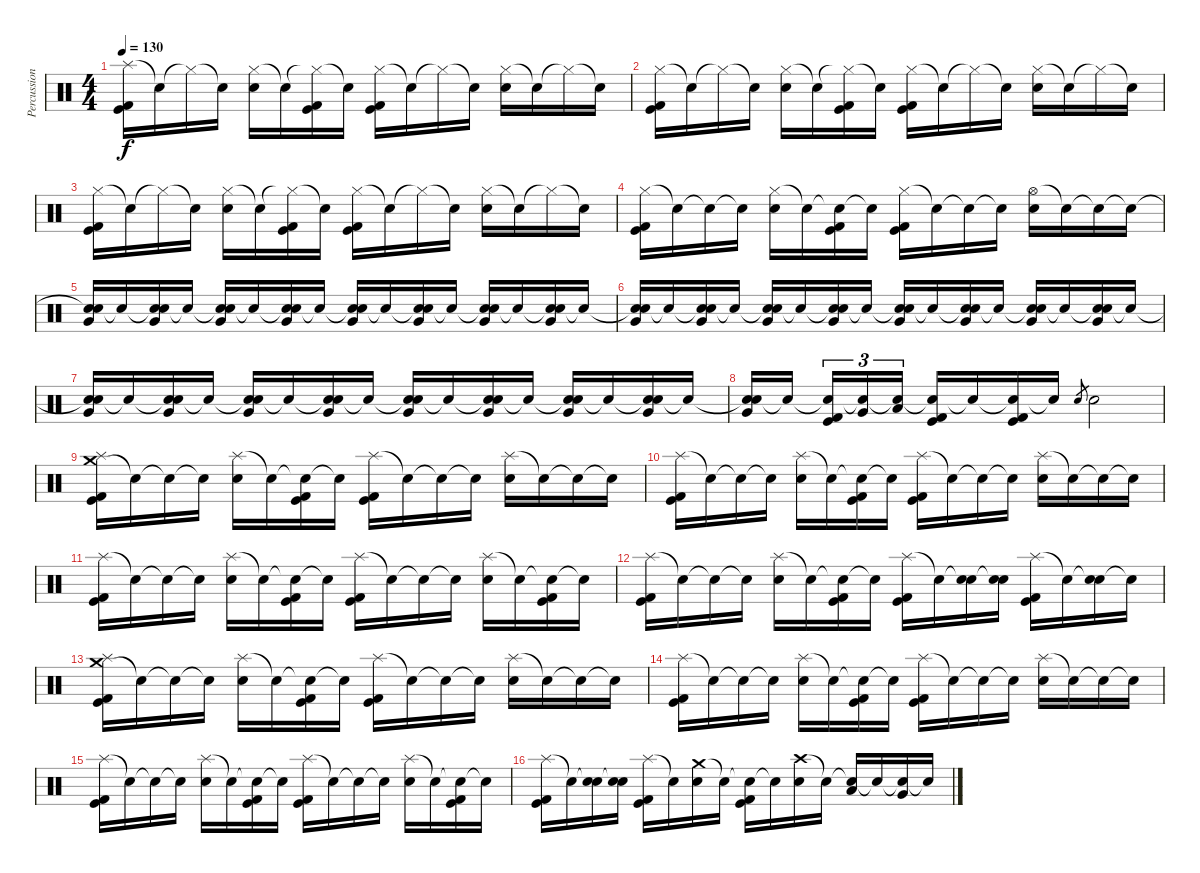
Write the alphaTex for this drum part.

\track ("Percussion" "Percussion") {instrument percussion}
\staff {score}
\articulation defaults
\ts (4 4)
\tempo 130
\clef neutral
\ks c
("Splash (hit)" "Kick (hit)" "Kick (hit) 2").16{dy f} "Snare (hit)"{t}.16 "Hi-Hat (closed)"{t}.16 "Snare (hit)"{t}.16 ("Hi-Hat (closed)" "Electric Snare (hit)").16 "Snare (hit)"{t}.16 ("Hi-Hat (closed)"{t} "Kick (hit)" "Kick (hit) 2").16 "Snare (hit)"{t}.16 ("Hi-Hat (closed)" "Kick (hit)" "Kick (hit) 2").16 "Snare (hit)"{t}.16 "Hi-Hat (closed)"{t}.16 "Snare (hit)"{t}.16 ("Hi-Hat (closed)" "Electric Snare (hit)").16 "Snare (hit)"{t}.16 "Hi-Hat (closed)"{t}.16 "Snare (hit)"{t}.16 |
("Hi-Hat (closed)" "Kick (hit)" "Kick (hit) 2").16 "Snare (hit)"{t}.16 "Hi-Hat (closed)"{t}.16 "Snare (hit)"{t}.16 ("Hi-Hat (closed)" "Electric Snare (hit)").16 "Snare (hit)"{t}.16 ("Hi-Hat (closed)"{t} "Kick (hit)" "Kick (hit) 2").16 "Snare (hit)"{t}.16 ("Hi-Hat (closed)" "Kick (hit)" "Kick (hit) 2").16 "Snare (hit)"{t}.16 "Hi-Hat (closed)"{t}.16 "Snare (hit)"{t}.16 ("Hi-Hat (closed)" "Electric Snare (hit)").16 "Snare (hit)"{t}.16 "Hi-Hat (closed)"{t}.16 "Snare (hit)"{t}.16 |
("Hi-Hat (closed)" "Kick (hit)" "Kick (hit) 2").16 "Snare (hit)"{t}.16 "Hi-Hat (closed)"{t}.16 "Snare (hit)"{t}.16 ("Hi-Hat (closed)" "Electric Snare (hit)").16 "Snare (hit)"{t}.16 ("Hi-Hat (closed)"{t} "Kick (hit)" "Kick (hit) 2").16 "Snare (hit)"{t}.16 ("Hi-Hat (closed)" "Kick (hit)" "Kick (hit) 2").16 "Snare (hit)"{t}.16 "Hi-Hat (closed)"{t}.16 "Snare (hit)"{t}.16 ("Hi-Hat (closed)" "Electric Snare (hit)").16 "Snare (hit)"{t}.16 "Hi-Hat (closed)"{t}.16 "Snare (hit)"{t}.16 |
("Hi-Hat (closed)" "Kick (hit)" "Kick (hit) 2").16 "Snare (hit)"{t}.16 "Snare (hit)"{t}.16 "Snare (hit)"{t}.16 ("Hi-Hat (closed)" "Electric Snare (hit)").16 "Snare (hit)"{t}.16 ("Snare (hit)"{t} "Kick (hit)" "Kick (hit) 2").16 "Snare (hit)"{t}.16 ("Hi-Hat (closed)" "Kick (hit)" "Kick (hit) 2").16 "Snare (hit)"{t}.16 "Snare (hit)"{t}.16 "Snare (hit)"{t}.16 ("Hi-Hat (open)" "Electric Snare (hit)").16 "Snare (hit)"{t}.16 "Snare (hit)"{t}.16 "Snare (hit)"{t}.16 |
("Snare (hit)"{t} "Electric Snare (hit)" "Very Low Tom (hit)").16{volume 4} "Snare (hit)"{t}.16 ("Snare (hit)"{t} "Electric Snare (hit)" "Very Low Tom (hit)").16{volume 8} "Snare (hit)"{t}.16 ("Snare (hit)"{t} "Electric Snare (hit)" "Very Low Tom (hit)").16 "Snare (hit)"{t}.16 ("Snare (hit)"{t} "Electric Snare (hit)" "Very Low Tom (hit)").16 "Snare (hit)"{t}.16 ("Snare (hit)"{t} "Electric Snare (hit)" "Very Low Tom (hit)").16 "Snare (hit)"{t}.16 ("Snare (hit)"{t} "Electric Snare (hit)" "Very Low Tom (hit)").16 "Snare (hit)"{t}.16 ("Snare (hit)"{t} "Electric Snare (hit)" "Very Low Tom (hit)").16 "Snare (hit)"{t}.16 ("Snare (hit)"{t} "Electric Snare (hit)" "Very Low Tom (hit)").16 "Snare (hit)"{t}.16 |
("Snare (hit)"{t} "Electric Snare (hit)" "Very Low Tom (hit)").16{volume 6} "Snare (hit)"{t}.16 ("Snare (hit)"{t} "Electric Snare (hit)" "Very Low Tom (hit)").16{volume 10} "Snare (hit)"{t}.16 ("Snare (hit)"{t} "Electric Snare (hit)" "Very Low Tom (hit)").16 "Snare (hit)"{t}.16 ("Snare (hit)"{t} "Electric Snare (hit)" "Very Low Tom (hit)").16 "Snare (hit)"{t}.16 ("Snare (hit)"{t} "Electric Snare (hit)" "Very Low Tom (hit)").16 "Snare (hit)"{t}.16 ("Snare (hit)"{t} "Electric Snare (hit)" "Very Low Tom (hit)").16 "Snare (hit)"{t}.16 ("Snare (hit)"{t} "Electric Snare (hit)" "Very Low Tom (hit)").16 "Snare (hit)"{t}.16 ("Snare (hit)"{t} "Electric Snare (hit)" "Very Low Tom (hit)").16 "Snare (hit)"{t}.16 |
("Snare (hit)"{t} "Electric Snare (hit)" "Very Low Tom (hit)").16{volume 8} "Snare (hit)"{t}.16 ("Snare (hit)"{t} "Electric Snare (hit)" "Very Low Tom (hit)").16{volume 12} "Snare (hit)"{t}.16 ("Snare (hit)"{t} "Electric Snare (hit)" "Very Low Tom (hit)").16 "Snare (hit)"{t}.16 ("Snare (hit)"{t} "Electric Snare (hit)" "Very Low Tom (hit)").16 "Snare (hit)"{t}.16 ("Snare (hit)"{t} "Electric Snare (hit)" "Very Low Tom (hit)").16 "Snare (hit)"{t}.16 ("Snare (hit)"{t} "Electric Snare (hit)" "Very Low Tom (hit)").16 "Snare (hit)"{t}.16 ("Snare (hit)"{t} "Electric Snare (hit)" "Very Low Tom (hit)").16 "Snare (hit)"{t}.16 ("Snare (hit)"{t} "Electric Snare (hit)" "Very Low Tom (hit)").16 "Snare (hit)"{t}.16 |
("Snare (hit)"{t} "Electric Snare (hit)" "Very Low Tom (hit)").16{volume 10} "Snare (hit)"{t}.16{beam splitsecondary} ("Snare (hit)"{t} "Kick (hit)" "Kick (hit) 2").16{tu (3 2) volume 16} ("Snare (hit)"{t} "Very Low Tom (hit)").16{tu (3 2)} ("Snare (hit)"{t} "Low Tom (hit)").16{tu (3 2)} ("Snare (hit)"{t} "Kick (hit)" "Kick (hit) 2").16 "Snare (hit)"{t}.16 ("Snare (hit)"{t} "Kick (hit)" "Kick (hit) 2").16 "Snare (hit)"{t}.16 "Electric Snare (hit)".8{gr} "Electric Snare (hit)".2 |
("Crash medium (hit)" "Splash (hit)" "Kick (hit)" "Kick (hit) 2").16 "Snare (hit)"{t}.16 "Snare (hit)"{t}.16 "Snare (hit)"{t}.16 ("Splash (hit)" "Electric Snare (hit)").16 "Snare (hit)"{t}.16 ("Snare (hit)"{t} "Kick (hit)" "Kick (hit) 2").16 "Snare (hit)"{t}.16 ("Splash (hit)" "Kick (hit)" "Kick (hit) 2").16 "Snare (hit)"{t}.16 "Snare (hit)"{t}.16 "Snare (hit)"{t}.16 ("Splash (hit)" "Electric Snare (hit)").16 "Snare (hit)"{t}.16 "Snare (hit)"{t}.16 "Snare (hit)"{t}.16 |
("Splash (hit)" "Kick (hit)" "Kick (hit) 2").16 "Snare (hit)"{t}.16 "Snare (hit)"{t}.16 "Snare (hit)"{t}.16 ("Splash (hit)" "Electric Snare (hit)").16 "Snare (hit)"{t}.16 ("Snare (hit)"{t} "Kick (hit)" "Kick (hit) 2").16 "Snare (hit)"{t}.16 ("Splash (hit)" "Kick (hit)" "Kick (hit) 2").16 "Snare (hit)"{t}.16 "Snare (hit)"{t}.16 "Snare (hit)"{t}.16 ("Splash (hit)" "Electric Snare (hit)").16 "Snare (hit)"{t}.16 "Snare (hit)"{t}.16 "Snare (hit)"{t}.16 |
("Splash (hit)" "Kick (hit)" "Kick (hit) 2").16 "Snare (hit)"{t}.16 "Snare (hit)"{t}.16 "Snare (hit)"{t}.16 ("Splash (hit)" "Electric Snare (hit)").16 "Snare (hit)"{t}.16 ("Snare (hit)"{t} "Kick (hit)" "Kick (hit) 2").16 "Snare (hit)"{t}.16 ("Splash (hit)" "Kick (hit)" "Kick (hit) 2").16 "Snare (hit)"{t}.16 "Snare (hit)"{t}.16 "Snare (hit)"{t}.16 ("Splash (hit)" "Electric Snare (hit)").16 "Snare (hit)"{t}.16 ("Snare (hit)"{t} "Kick (hit)" "Kick (hit) 2").16 "Snare (hit)"{t}.16 |
("Splash (hit)" "Kick (hit)" "Kick (hit) 2").16 "Snare (hit)"{t}.16 "Snare (hit)"{t}.16 "Snare (hit)"{t}.16 ("Splash (hit)" "Electric Snare (hit)").16 "Snare (hit)"{t}.16 ("Snare (hit)"{t} "Kick (hit)" "Kick (hit) 2").16 "Snare (hit)"{t}.16 ("Splash (hit)" "Kick (hit)" "Kick (hit) 2").16 "Snare (hit)"{t}.16 ("Snare (hit)"{t} "Electric Snare (hit)").16 ("Snare (hit)"{t} "Electric Snare (hit)").16 ("Splash (hit)" "Kick (hit)" "Kick (hit) 2").16 "Snare (hit)"{t}.16 ("Snare (hit)"{t} "Electric Snare (hit)").16 "Snare (hit)"{t}.16 |
("Crash medium (hit)" "Splash (hit)" "Kick (hit)" "Kick (hit) 2").16 "Snare (hit)"{t}.16 "Snare (hit)"{t}.16 "Snare (hit)"{t}.16 ("Splash (hit)" "Electric Snare (hit)").16 "Snare (hit)"{t}.16 ("Snare (hit)"{t} "Kick (hit)" "Kick (hit) 2").16 "Snare (hit)"{t}.16 ("Splash (hit)" "Kick (hit)" "Kick (hit) 2").16 "Snare (hit)"{t}.16 "Snare (hit)"{t}.16 "Snare (hit)"{t}.16 ("Splash (hit)" "Electric Snare (hit)").16 "Snare (hit)"{t}.16 "Snare (hit)"{t}.16 "Snare (hit)"{t}.16 |
("Splash (hit)" "Kick (hit)" "Kick (hit) 2").16 "Snare (hit)"{t}.16 "Snare (hit)"{t}.16 "Snare (hit)"{t}.16 ("Splash (hit)" "Electric Snare (hit)").16 "Snare (hit)"{t}.16 ("Snare (hit)"{t} "Kick (hit)" "Kick (hit) 2").16 "Snare (hit)"{t}.16 ("Splash (hit)" "Kick (hit)" "Kick (hit) 2").16 "Snare (hit)"{t}.16 "Snare (hit)"{t}.16 "Snare (hit)"{t}.16 ("Splash (hit)" "Electric Snare (hit)").16 "Snare (hit)"{t}.16 "Snare (hit)"{t}.16 "Snare (hit)"{t}.16 |
("Splash (hit)" "Kick (hit)" "Kick (hit) 2").16 "Snare (hit)"{t}.16 "Snare (hit)"{t}.16 "Snare (hit)"{t}.16 ("Splash (hit)" "Electric Snare (hit)").16 "Snare (hit)"{t}.16 ("Snare (hit)"{t} "Kick (hit)" "Kick (hit) 2").16 "Snare (hit)"{t}.16 ("Splash (hit)" "Kick (hit)" "Kick (hit) 2").16 "Snare (hit)"{t}.16 "Snare (hit)"{t}.16 "Snare (hit)"{t}.16 ("Splash (hit)" "Electric Snare (hit)").16 "Snare (hit)"{t}.16 ("Snare (hit)"{t} "Kick (hit)" "Kick (hit) 2").16 "Snare (hit)"{t}.16 |
("Splash (hit)" "Kick (hit)" "Kick (hit) 2").16 "Snare (hit)"{t}.16 ("Snare (hit)"{t} "Electric Snare (hit)").16 ("Snare (hit)"{t} "Electric Snare (hit)").16 ("Splash (hit)" "Kick (hit)" "Kick (hit) 2").16 "Snare (hit)"{t}.16 ("Crash medium (hit)" "Electric Snare (hit)").16 "Snare (hit)"{t}.16 ("Snare (hit)"{t} "Kick (hit)" "Kick (hit) 2").16 "Snare (hit)"{t}.16 ("Crash high (hit)" "Electric Snare (hit)").16 "Snare (hit)"{t}.16 ("Snare (hit)"{t} "Low Tom (hit)").16 "Snare (hit)"{t}.16 ("Snare (hit)"{t} "Very Low Tom (hit)").16 "Snare (hit)"{t}.16
